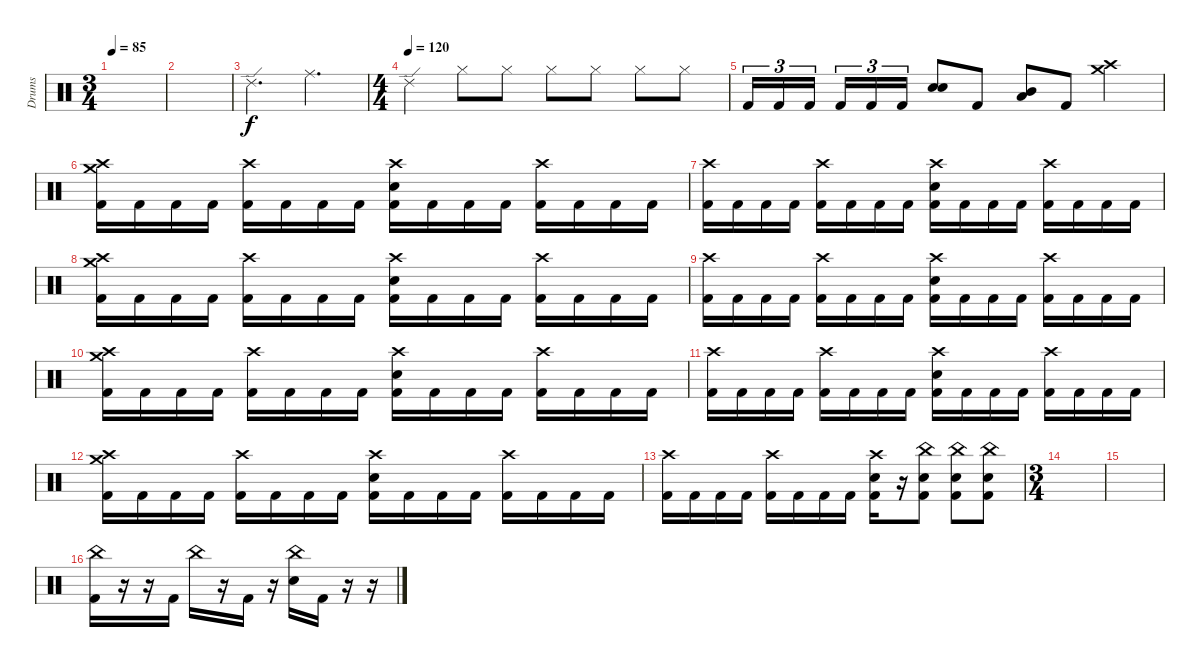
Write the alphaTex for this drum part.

\track ("Drums" "Drums") {instrument percussion}
\staff {score}
\articulation defaults
\ts (3 4)
\tempo 85
\clef neutral
\ks c
|
|
"Ride (edge) 2".4{d} "Ride (middle)".4{d} |
\ts (4 4)
\tempo (120)
"Ride (edge) 2".4 "Hi-Hat (closed)".8 "Hi-Hat (closed)".8 "Hi-Hat (closed)".8 "Hi-Hat (closed)".8 "Hi-Hat (closed)".8 "Hi-Hat (closed)".8 |
"Kick (hit) 2".16{tu (3 2)} "Kick (hit) 2".16{tu (3 2)} "Kick (hit) 2".16{tu (3 2) beam splitsecondary} "Kick (hit) 2".16{tu (3 2)} "Kick (hit) 2".16{tu (3 2)} "Kick (hit) 2".16{tu (3 2)} ("Electric Snare (hit)" "Electric Snare (hit)").8{bd 480} "Kick (hit) 2".8 ("Mid Tom (hit)" "Low Tom (hit)").8 "Kick (hit) 2".8 ("Crash high (hit)" "Crash medium (hit)").4 |
("Crash high (hit)" "Crash medium (hit)" "Kick (hit) 2").16 "Kick (hit) 2".16 "Kick (hit) 2".16 "Kick (hit) 2".16 ("Crash high (hit)" "Kick (hit) 2").16 "Kick (hit) 2".16 "Kick (hit) 2".16 "Kick (hit) 2".16 ("Crash high (hit)" "Electric Snare (hit)" "Kick (hit) 2").16 "Kick (hit) 2".16 "Kick (hit) 2".16 "Kick (hit) 2".16 ("Crash high (hit)" "Kick (hit) 2").16 "Kick (hit) 2".16 "Kick (hit) 2".16 "Kick (hit) 2".16 |
("Crash high (hit)" "Kick (hit) 2").16 "Kick (hit) 2".16 "Kick (hit) 2".16 "Kick (hit) 2".16 ("Crash high (hit)" "Kick (hit) 2").16 "Kick (hit) 2".16 "Kick (hit) 2".16 "Kick (hit) 2".16 ("Crash high (hit)" "Electric Snare (hit)" "Kick (hit) 2").16 "Kick (hit) 2".16 "Kick (hit) 2".16 "Kick (hit) 2".16 ("Crash high (hit)" "Kick (hit) 2").16 "Kick (hit) 2".16 "Kick (hit) 2".16 "Kick (hit) 2".16 |
("Crash high (hit)" "Crash medium (hit)" "Kick (hit) 2").16 "Kick (hit) 2".16 "Kick (hit) 2".16 "Kick (hit) 2".16 ("Crash high (hit)" "Kick (hit) 2").16 "Kick (hit) 2".16 "Kick (hit) 2".16 "Kick (hit) 2".16 ("Crash high (hit)" "Electric Snare (hit)" "Kick (hit) 2").16 "Kick (hit) 2".16 "Kick (hit) 2".16 "Kick (hit) 2".16 ("Crash high (hit)" "Kick (hit) 2").16 "Kick (hit) 2".16 "Kick (hit) 2".16 "Kick (hit) 2".16 |
("Crash high (hit)" "Kick (hit) 2").16 "Kick (hit) 2".16 "Kick (hit) 2".16 "Kick (hit) 2".16 ("Crash high (hit)" "Kick (hit) 2").16 "Kick (hit) 2".16 "Kick (hit) 2".16 "Kick (hit) 2".16 ("Crash high (hit)" "Electric Snare (hit)" "Kick (hit) 2").16 "Kick (hit) 2".16 "Kick (hit) 2".16 "Kick (hit) 2".16 ("Crash high (hit)" "Kick (hit) 2").16 "Kick (hit) 2".16 "Kick (hit) 2".16 "Kick (hit) 2".16 |
("Crash high (hit)" "Crash medium (hit)" "Kick (hit) 2").16 "Kick (hit) 2".16 "Kick (hit) 2".16 "Kick (hit) 2".16 ("Crash high (hit)" "Kick (hit) 2").16 "Kick (hit) 2".16 "Kick (hit) 2".16 "Kick (hit) 2".16 ("Crash high (hit)" "Electric Snare (hit)" "Kick (hit) 2").16 "Kick (hit) 2".16 "Kick (hit) 2".16 "Kick (hit) 2".16 ("Crash high (hit)" "Kick (hit) 2").16 "Kick (hit) 2".16 "Kick (hit) 2".16 "Kick (hit) 2".16 |
("Crash high (hit)" "Kick (hit) 2").16 "Kick (hit) 2".16 "Kick (hit) 2".16 "Kick (hit) 2".16 ("Crash high (hit)" "Kick (hit) 2").16 "Kick (hit) 2".16 "Kick (hit) 2".16 "Kick (hit) 2".16 ("Crash high (hit)" "Electric Snare (hit)" "Kick (hit) 2").16 "Kick (hit) 2".16 "Kick (hit) 2".16 "Kick (hit) 2".16 ("Crash high (hit)" "Kick (hit) 2").16 "Kick (hit) 2".16 "Kick (hit) 2".16 "Kick (hit) 2".16 |
("Crash high (hit)" "Crash medium (hit)" "Kick (hit) 2").16 "Kick (hit) 2".16 "Kick (hit) 2".16 "Kick (hit) 2".16 ("Crash high (hit)" "Kick (hit) 2").16 "Kick (hit) 2".16 "Kick (hit) 2".16 "Kick (hit) 2".16 ("Crash high (hit)" "Electric Snare (hit)" "Kick (hit) 2").16 "Kick (hit) 2".16 "Kick (hit) 2".16 "Kick (hit) 2".16 ("Crash high (hit)" "Kick (hit) 2").16 "Kick (hit) 2".16 "Kick (hit) 2".16 "Kick (hit) 2".16 |
("Crash high (hit)" "Kick (hit) 2").16 "Kick (hit) 2".16 "Kick (hit) 2".16 "Kick (hit) 2".16 ("Crash high (hit)" "Kick (hit) 2").16 "Kick (hit) 2".16 "Kick (hit) 2".16 "Kick (hit) 2".16 ("Crash high (hit)" "Electric Snare (hit)" "Kick (hit) 2").16 r.16 ("China (hit)" "Electric Snare (hit)" "Kick (hit) 2").8 ("China (hit)" "Electric Snare (hit)" "Kick (hit) 2").8 ("China (hit)" "Electric Snare (hit)" "Kick (hit) 2").8 |
\ts (3 4)
|
|
("China (hit)" "Kick (hit) 2").16 r.16 r.16 "Kick (hit) 2".16 "China (hit)".16 r.16 "Kick (hit) 2".16 r.16 ("China (hit)" "Electric Snare (hit)").16 "Kick (hit) 2".16 r.16 r.16
